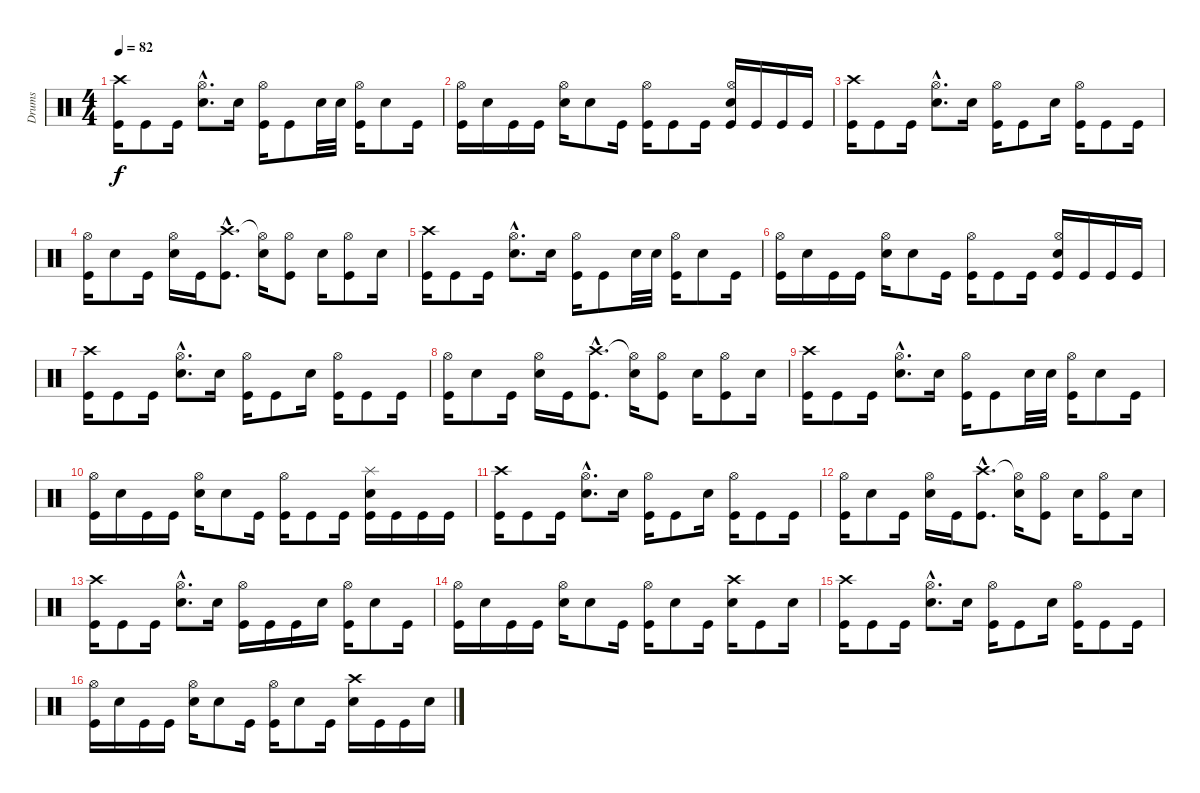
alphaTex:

\track ("Drums" "Drums") {instrument percussion}
\staff {score}
\articulation defaults
\ts (4 4)
\tempo 82
\clef neutral
\ks c
("Crash high (hit)" "Kick (hit)").16{dy f} "Kick (hit)".8 "Kick (hit)".16 ("Hi-Hat (open)"{hac} "Electric Snare (hit)"{hac}).8{d} "Electric Snare (hit)".16 ("Hi-Hat (open)" "Kick (hit)").16 "Kick (hit)".8 "Electric Snare (hit)".32 "Electric Snare (hit)".32 ("Hi-Hat (open)" "Kick (hit)").16 "Electric Snare (hit)".8 "Kick (hit)".16 |
("Hi-Hat (open)" "Kick (hit)").16 "Electric Snare (hit)".16 "Kick (hit)".16 "Kick (hit)".16 ("Hi-Hat (open)" "Electric Snare (hit)").16 "Electric Snare (hit)".8 "Kick (hit)".16 ("Hi-Hat (open)" "Kick (hit)").16 "Kick (hit)".8 "Kick (hit)".16 ("Hi-Hat (open)" "Electric Snare (hit)" "Kick (hit)").16 "Kick (hit)".16 "Kick (hit)".16 "Kick (hit)".16 |
("Crash high (hit)" "Kick (hit)").16 "Kick (hit)".8 "Kick (hit)".16 ("Hi-Hat (open)"{hac} "Electric Snare (hit)"{hac}).8{d} "Electric Snare (hit)".16 ("Hi-Hat (open)" "Kick (hit)").16 "Kick (hit)".8 "Electric Snare (hit)".16 ("Hi-Hat (open)" "Kick (hit)").16 "Kick (hit)".8 "Kick (hit)".16 |
("Hi-Hat (open)" "Kick (hit)").16 "Electric Snare (hit)".8 "Kick (hit)".16 ("Hi-Hat (open)" "Electric Snare (hit)").16 "Kick (hit)".16 ("Crash high (hit)"{hac} "Kick (hit)"{hac}).8{d} ("Hi-Hat (open)"{t} "Electric Snare (hit)").16 ("Hi-Hat (open)" "Kick (hit)").8 "Electric Snare (hit)".16 ("Hi-Hat (open)" "Kick (hit)").8 "Electric Snare (hit)".16 |
("Crash high (hit)" "Kick (hit)").16 "Kick (hit)".8 "Kick (hit)".16 ("Hi-Hat (open)"{hac} "Electric Snare (hit)"{hac}).8{d} "Electric Snare (hit)".16 ("Hi-Hat (open)" "Kick (hit)").16 "Kick (hit)".8 "Electric Snare (hit)".32 "Electric Snare (hit)".32 ("Hi-Hat (open)" "Kick (hit)").16 "Electric Snare (hit)".8 "Kick (hit)".16 |
("Hi-Hat (open)" "Kick (hit)").16 "Electric Snare (hit)".16 "Kick (hit)".16 "Kick (hit)".16 ("Hi-Hat (open)" "Electric Snare (hit)").16 "Electric Snare (hit)".8 "Kick (hit)".16 ("Hi-Hat (open)" "Kick (hit)").16 "Kick (hit)".8 "Kick (hit)".16 ("Hi-Hat (open)" "Electric Snare (hit)" "Kick (hit)").16 "Kick (hit)".16 "Kick (hit)".16 "Kick (hit)".16 |
("Crash high (hit)" "Kick (hit)").16 "Kick (hit)".8 "Kick (hit)".16 ("Hi-Hat (open)"{hac} "Electric Snare (hit)"{hac}).8{d} "Electric Snare (hit)".16 ("Hi-Hat (open)" "Kick (hit)").16 "Kick (hit)".8 "Electric Snare (hit)".16 ("Hi-Hat (open)" "Kick (hit)").16 "Kick (hit)".8 "Kick (hit)".16 |
("Hi-Hat (open)" "Kick (hit)").16 "Electric Snare (hit)".8 "Kick (hit)".16 ("Hi-Hat (open)" "Electric Snare (hit)").16 "Kick (hit)".16 ("Crash high (hit)"{hac} "Kick (hit)"{hac}).8{d} ("Hi-Hat (open)"{t} "Electric Snare (hit)").16 ("Hi-Hat (open)" "Kick (hit)").8 "Electric Snare (hit)".16 ("Hi-Hat (open)" "Kick (hit)").8 "Electric Snare (hit)".16 |
("Crash high (hit)" "Kick (hit)").16 "Kick (hit)".8 "Kick (hit)".16 ("Hi-Hat (open)"{hac} "Electric Snare (hit)"{hac}).8{d} "Electric Snare (hit)".16 ("Hi-Hat (open)" "Kick (hit)").16 "Kick (hit)".8 "Electric Snare (hit)".32 "Electric Snare (hit)".32 ("Hi-Hat (open)" "Kick (hit)").16 "Electric Snare (hit)".8 "Kick (hit)".16 |
("Hi-Hat (open)" "Kick (hit)").16 "Electric Snare (hit)".16 "Kick (hit)".16 "Kick (hit)".16 ("Hi-Hat (open)" "Electric Snare (hit)").16 "Electric Snare (hit)".8 "Kick (hit)".16 ("Hi-Hat (open)" "Kick (hit)").16 "Kick (hit)".8 "Kick (hit)".16 ("Splash (hit)" "Electric Snare (hit)" "Kick (hit)").16 "Kick (hit)".16 "Kick (hit)".16 "Kick (hit)".16 |
("Crash high (hit)" "Kick (hit)").16 "Kick (hit)".8 "Kick (hit)".16 ("Hi-Hat (open)"{hac} "Electric Snare (hit)"{hac}).8{d} "Electric Snare (hit)".16 ("Hi-Hat (open)" "Kick (hit)").16 "Kick (hit)".8 "Electric Snare (hit)".16 ("Hi-Hat (open)" "Kick (hit)").16 "Kick (hit)".8 "Kick (hit)".16 |
("Hi-Hat (open)" "Kick (hit)").16 "Electric Snare (hit)".8 "Kick (hit)".16 ("Hi-Hat (open)" "Electric Snare (hit)").16 "Kick (hit)".16 ("Crash high (hit)"{hac} "Kick (hit)"{hac}).8{d} ("Hi-Hat (open)"{t} "Electric Snare (hit)").16 ("Hi-Hat (open)" "Kick (hit)").8 "Electric Snare (hit)".16 ("Hi-Hat (open)" "Kick (hit)").8 "Electric Snare (hit)".16 |
("Crash high (hit)" "Kick (hit)").16 "Kick (hit)".8 "Kick (hit)".16 ("Hi-Hat (open)"{hac} "Electric Snare (hit)"{hac}).8{d} "Electric Snare (hit)".16 ("Hi-Hat (open)" "Kick (hit)").16 "Kick (hit)".16 "Kick (hit)".16 "Electric Snare (hit)".16 ("Hi-Hat (open)" "Kick (hit)").16 "Electric Snare (hit)".8 "Kick (hit)".16 |
("Hi-Hat (open)" "Kick (hit)").16 "Electric Snare (hit)".16 "Kick (hit)".16 "Kick (hit)".16 ("Hi-Hat (open)" "Electric Snare (hit)").16 "Electric Snare (hit)".8 "Kick (hit)".16 ("Hi-Hat (open)" "Kick (hit)").16 "Electric Snare (hit)".8 "Kick (hit)".16 ("Crash high (hit)" "Electric Snare (hit)").16 "Kick (hit)".8 "Electric Snare (hit)".16 |
("Crash high (hit)" "Kick (hit)").16 "Kick (hit)".8 "Kick (hit)".16 ("Hi-Hat (open)"{hac} "Electric Snare (hit)"{hac}).8{d} "Electric Snare (hit)".16 ("Hi-Hat (open)" "Kick (hit)").16 "Kick (hit)".8 "Electric Snare (hit)".16 ("Hi-Hat (open)" "Kick (hit)").16 "Kick (hit)".8 "Kick (hit)".16 |
("Hi-Hat (open)" "Kick (hit)").16 "Electric Snare (hit)".16 "Kick (hit)".16 "Kick (hit)".16 ("Hi-Hat (open)" "Electric Snare (hit)").16 "Electric Snare (hit)".8 "Kick (hit)".16 ("Hi-Hat (open)" "Kick (hit)").16 "Electric Snare (hit)".8 "Kick (hit)".16 ("Crash high (hit)" "Electric Snare (hit)").16 "Kick (hit)".16 "Kick (hit)".16 "Electric Snare (hit)".16
